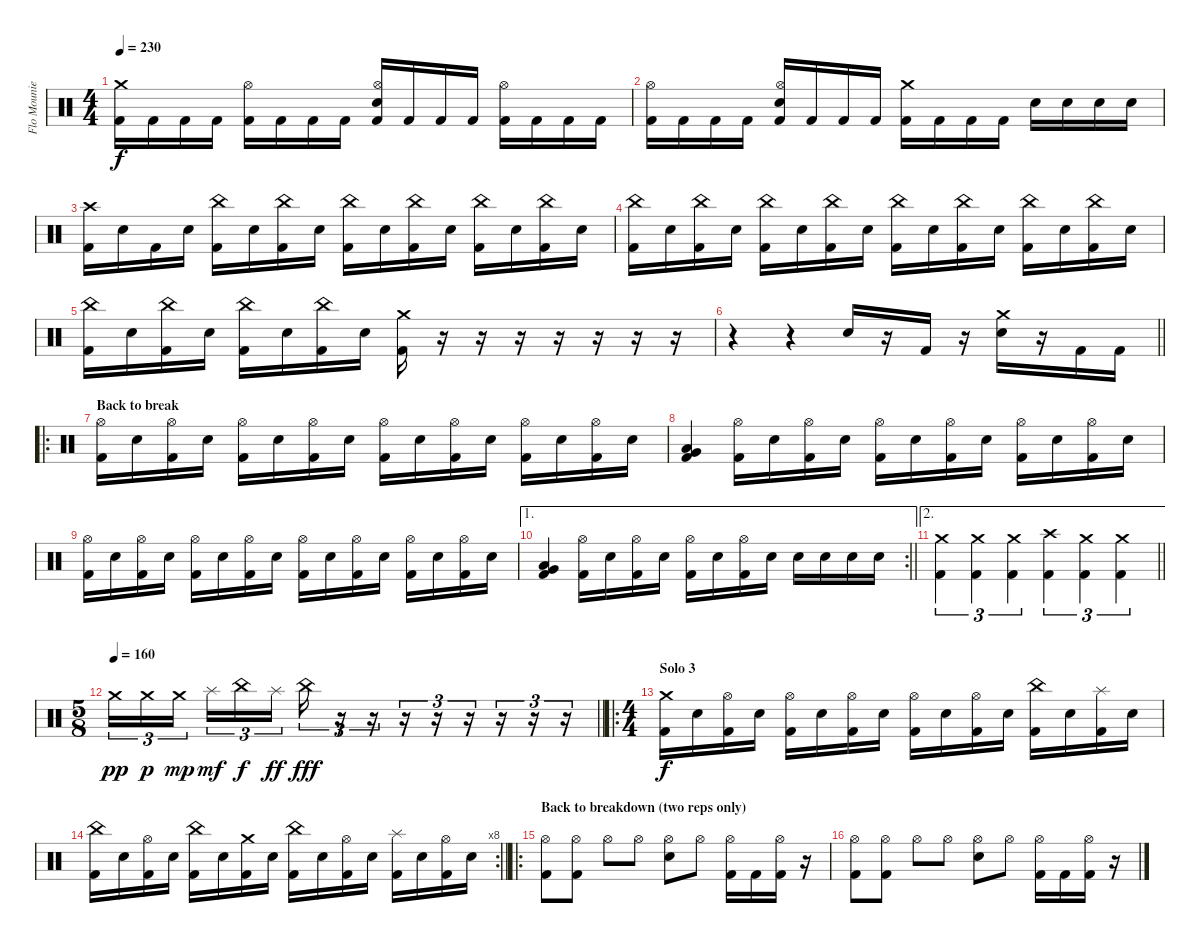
\track ("Flo Mounier" "Flo Mounie") {instrument percussion}
\staff {score}
\articulation defaults
\ts (4 4)
\tempo 230
\clef neutral
\ks c
("Crash medium (hit)" "Kick (hit) 2").16{dy f} "Kick (hit) 2".16 "Kick (hit) 2".16 "Kick (hit) 2".16 ("Hi-Hat (open)" "Kick (hit) 2").16 "Kick (hit) 2".16 "Kick (hit) 2".16 "Kick (hit) 2".16 ("Hi-Hat (open)" "Electric Snare (hit)" "Kick (hit) 2").16 "Kick (hit) 2".16 "Kick (hit) 2".16 "Kick (hit) 2".16 ("Hi-Hat (open)" "Kick (hit) 2").16 "Kick (hit) 2".16 "Kick (hit) 2".16 "Kick (hit) 2".16 |
("Hi-Hat (open)" "Kick (hit) 2").16 "Kick (hit) 2".16 "Kick (hit) 2".16 "Kick (hit) 2".16 ("Hi-Hat (open)" "Electric Snare (hit)" "Kick (hit) 2").16 "Kick (hit) 2".16 "Kick (hit) 2".16 "Kick (hit) 2".16 ("Crash medium (hit)" "Kick (hit) 2").16 "Kick (hit) 2".16 "Kick (hit) 2".16 "Kick (hit) 2".16 "Electric Snare (hit)".16 "Electric Snare (hit)".16 "Electric Snare (hit)".16 "Electric Snare (hit)".16 |
("Crash high (hit)" "Kick (hit) 2").16 "Electric Snare (hit)".16 "Kick (hit) 2".16 "Electric Snare (hit)".16 ("China (hit)" "Kick (hit) 2").16 "Electric Snare (hit)".16 ("China (hit)" "Kick (hit) 2").16 "Electric Snare (hit)".16 ("China (hit)" "Kick (hit) 2").16 "Electric Snare (hit)".16 ("China (hit)" "Kick (hit) 2").16 "Electric Snare (hit)".16 ("China (hit)" "Kick (hit) 2").16 "Electric Snare (hit)".16 ("China (hit)" "Kick (hit) 2").16 "Electric Snare (hit)".16 |
("China (hit)" "Kick (hit) 2").16 "Electric Snare (hit)".16 ("China (hit)" "Kick (hit) 2").16 "Electric Snare (hit)".16 ("China (hit)" "Kick (hit) 2").16 "Electric Snare (hit)".16 ("China (hit)" "Kick (hit) 2").16 "Electric Snare (hit)".16 ("China (hit)" "Kick (hit) 2").16 "Electric Snare (hit)".16 ("China (hit)" "Kick (hit) 2").16 "Electric Snare (hit)".16 ("China (hit)" "Kick (hit) 2").16 "Electric Snare (hit)".16 ("China (hit)" "Kick (hit) 2").16 "Electric Snare (hit)".16 |
("China (hit)" "Kick (hit) 2").16 "Electric Snare (hit)".16 ("China (hit)" "Kick (hit) 2").16 "Electric Snare (hit)".16 ("China (hit)" "Kick (hit) 2").16 "Electric Snare (hit)".16 ("China (hit)" "Kick (hit) 2").16 "Electric Snare (hit)".16 ("Crash medium (hit)" "Kick (hit) 2").16 r.16 r.16 r.16 r.16 r.16 r.16 r.16 |
\barLineRight lightlight
r.4 r.4 "Electric Snare (hit)".16 r.16 "Kick (hit) 2".16 r.16 ("Crash medium (hit)" "Electric Snare (hit)").16 r.16 "Kick (hit) 2".16 "Kick (hit) 2".16 |
\ro
\section ("" "Back to break")
("Hi-Hat (open)" "Kick (hit) 2").16 "Electric Snare (hit)".16 ("Hi-Hat (open)" "Kick (hit) 2").16 "Electric Snare (hit)".16 ("Hi-Hat (open)" "Kick (hit) 2").16 "Electric Snare (hit)".16 ("Hi-Hat (open)" "Kick (hit) 2").16 "Electric Snare (hit)".16 ("Hi-Hat (open)" "Kick (hit) 2").16 "Electric Snare (hit)".16 ("Hi-Hat (open)" "Kick (hit) 2").16 "Electric Snare (hit)".16 ("Hi-Hat (open)" "Kick (hit) 2").16 "Electric Snare (hit)".16 ("Hi-Hat (open)" "Kick (hit) 2").16 "Electric Snare (hit)".16 |
("Very Low Tom (hit)" "Low Tom (hit)" "Kick (hit) 2").4 ("Hi-Hat (open)" "Kick (hit) 2").16 "Electric Snare (hit)".16 ("Hi-Hat (open)" "Kick (hit) 2").16 "Electric Snare (hit)".16 ("Hi-Hat (open)" "Kick (hit) 2").16 "Electric Snare (hit)".16 ("Hi-Hat (open)" "Kick (hit) 2").16 "Electric Snare (hit)".16 ("Hi-Hat (open)" "Kick (hit) 2").16 "Electric Snare (hit)".16 ("Hi-Hat (open)" "Kick (hit) 2").16 "Electric Snare (hit)".16 |
("Hi-Hat (open)" "Kick (hit) 2").16 "Electric Snare (hit)".16 ("Hi-Hat (open)" "Kick (hit) 2").16 "Electric Snare (hit)".16 ("Hi-Hat (open)" "Kick (hit) 2").16 "Electric Snare (hit)".16 ("Hi-Hat (open)" "Kick (hit) 2").16 "Electric Snare (hit)".16 ("Hi-Hat (open)" "Kick (hit) 2").16 "Electric Snare (hit)".16 ("Hi-Hat (open)" "Kick (hit) 2").16 "Electric Snare (hit)".16 ("Hi-Hat (open)" "Kick (hit) 2").16 "Electric Snare (hit)".16 ("Hi-Hat (open)" "Kick (hit) 2").16 "Electric Snare (hit)".16 |
\ae 1
\rc 2
\barLineRight lightlight
("Very Low Tom (hit)" "Low Tom (hit)" "Kick (hit) 2").4 ("Hi-Hat (open)" "Kick (hit) 2").16 "Electric Snare (hit)".16 ("Hi-Hat (open)" "Kick (hit) 2").16 "Electric Snare (hit)".16 ("Hi-Hat (open)" "Kick (hit) 2").16 "Electric Snare (hit)".16 ("Hi-Hat (open)" "Kick (hit) 2").16 "Electric Snare (hit)".16 "Electric Snare (hit)".16 "Electric Snare (hit)".16 "Electric Snare (hit)".16 "Electric Snare (hit)".16 |
\ae 2
\barLineRight lightlight
("Crash medium (hit)" "Kick (hit) 2").4{tu (3 2)} ("Crash medium (hit)" "Kick (hit) 2").4{tu (3 2)} ("Crash medium (hit)" "Kick (hit) 2").4{tu (3 2)} ("Crash high (hit)" "Kick (hit) 2").4{tu (3 2)} ("Crash medium (hit)" "Kick (hit) 2").4{tu (3 2)} ("Crash medium (hit)" "Kick (hit) 2").4{tu (3 2)} |
\ts (5 8)
\tempo 160
\barLineRight lightlight "Crash medium (hit)".16{tu (3 2) dy pp} "Crash medium (hit)".16{tu (3 2) dy p} "Crash medium (hit)".16{tu (3 2) dy mp} "Splash (hit)".16{tu (3 2) dy mf} "China (hit)".16{tu (3 2) dy f} "Splash (hit)".16{tu (3 2) dy ff} "China (hit)".16{tu (3 2) dy fff}
r.16{tu (3 2)} r.16{tu (3 2)} r.16{tu (3 2)} r.16{tu (3 2)} r.16{tu (3 2)} r.16{tu (3 2)} r.16{tu (3 2)} r.16{tu (3 2)} |
\ro
\ts (4 4)
\section ("" "Solo 3")
("Crash medium (hit)" "Kick (hit) 2").16{dy f} "Electric Snare (hit)".16 ("Hi-Hat (open)" "Kick (hit) 2").16 "Electric Snare (hit)".16 ("Hi-Hat (open)" "Kick (hit) 2").16 "Electric Snare (hit)".16 ("Hi-Hat (open)" "Kick (hit) 2").16 "Electric Snare (hit)".16 ("Hi-Hat (open)" "Kick (hit) 2").16 "Electric Snare (hit)".16 ("Hi-Hat (open)" "Kick (hit) 2").16 "Electric Snare (hit)".16 ("China (hit)" "Kick (hit) 2").16 "Electric Snare (hit)".16 ("Splash (hit)" "Kick (hit) 2").16 "Electric Snare (hit)".16 |
\rc 8
\barLineRight lightlight
("China (hit)" "Kick (hit) 2").16 "Electric Snare (hit)".16 ("Hi-Hat (open)" "Kick (hit) 2").16 "Electric Snare (hit)".16 ("China (hit)" "Kick (hit) 2").16 "Electric Snare (hit)".16 ("Crash medium (hit)" "Kick (hit) 2").16 "Electric Snare (hit)".16 ("China (hit)" "Kick (hit) 2").16 "Electric Snare (hit)".16 ("Hi-Hat (open)" "Kick (hit) 2").16 "Electric Snare (hit)".16 ("Splash (hit)" "Kick (hit) 2").16 "Electric Snare (hit)".16 ("Hi-Hat (open)" "Kick (hit) 2").16 "Electric Snare (hit)".16 |
\ro
\section ("" "Back to breakdown (two reps only)")
("Hi-Hat (open)" "Kick (hit) 2").8 ("Hi-Hat (open)" "Kick (hit) 2").8 "Hi-Hat (open)".8 "Hi-Hat (open)".8 ("Hi-Hat (open)" "Electric Snare (hit)").8 "Hi-Hat (open)".8 ("Hi-Hat (open)" "Kick (hit) 2").16 "Kick (hit) 2".16 ("Hi-Hat (open)" "Kick (hit) 2").16 r.16 |
("Hi-Hat (open)" "Kick (hit) 2").8 ("Hi-Hat (open)" "Kick (hit) 2").8 "Hi-Hat (open)".8 "Hi-Hat (open)".8 ("Hi-Hat (open)" "Electric Snare (hit)").8 "Hi-Hat (open)".8 ("Hi-Hat (open)" "Kick (hit) 2").16 "Kick (hit) 2".16 ("Hi-Hat (open)" "Kick (hit) 2").16 r.16
